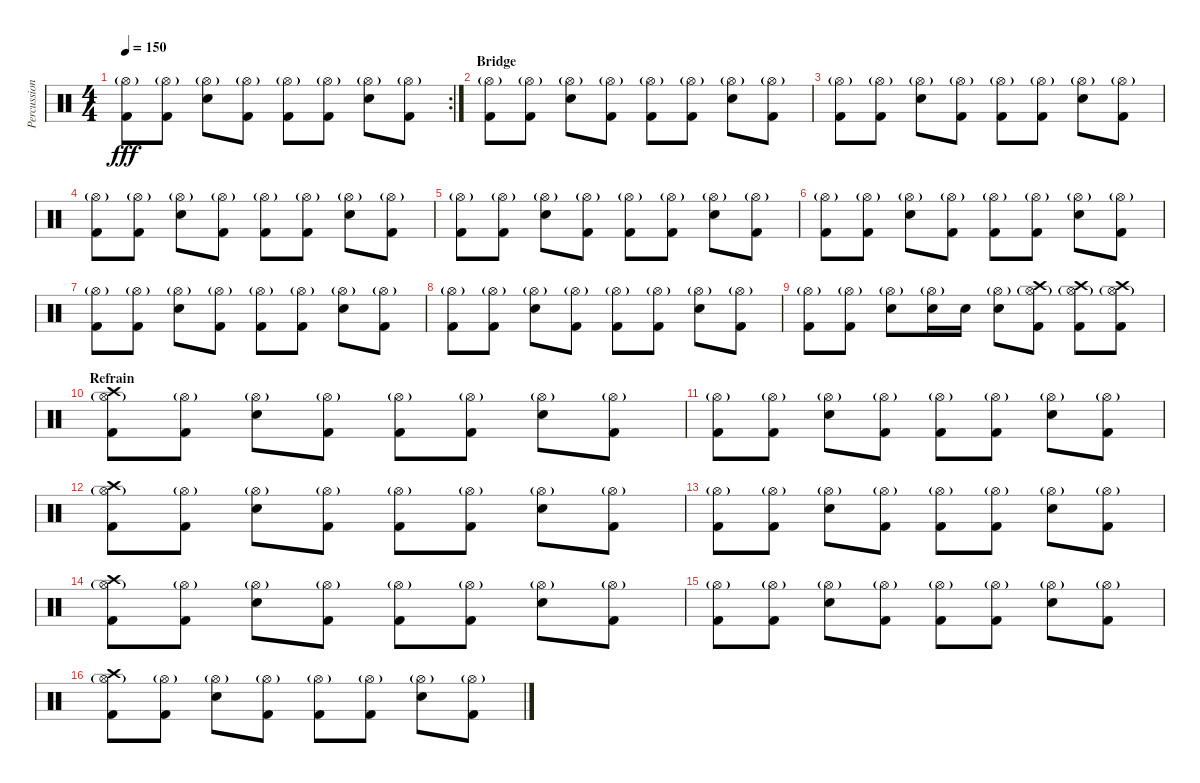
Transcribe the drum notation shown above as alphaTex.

\track ("Percussion" "Percussion") {instrument percussion}
\staff {score}
\articulation defaults
\rc 2
\ts (4 4)
\tempo 150
\clef neutral
\ks c
("Hi-Hat (open)"{g} "Kick (hit) 2").8{dy fff} ("Hi-Hat (open)"{g} "Kick (hit) 2").8 ("Hi-Hat (open)"{g} "Snare (hit) 2").8 ("Hi-Hat (open)"{g} "Kick (hit) 2").8 ("Hi-Hat (open)"{g} "Kick (hit) 2").8 ("Hi-Hat (open)"{g} "Kick (hit) 2").8 ("Hi-Hat (open)"{g} "Snare (hit) 2").8 ("Hi-Hat (open)"{g} "Kick (hit) 2").8 |
\section ("" "Bridge")
("Hi-Hat (open)"{g} "Kick (hit) 2").8 ("Hi-Hat (open)"{g} "Kick (hit) 2").8 ("Hi-Hat (open)"{g} "Snare (hit) 2").8 ("Hi-Hat (open)"{g} "Kick (hit) 2").8 ("Hi-Hat (open)"{g} "Kick (hit) 2").8 ("Hi-Hat (open)"{g} "Kick (hit) 2").8 ("Hi-Hat (open)"{g} "Snare (hit) 2").8 ("Hi-Hat (open)"{g} "Kick (hit) 2").8 |
("Hi-Hat (open)"{g} "Kick (hit) 2").8 ("Hi-Hat (open)"{g} "Kick (hit) 2").8 ("Hi-Hat (open)"{g} "Snare (hit) 2").8 ("Hi-Hat (open)"{g} "Kick (hit) 2").8 ("Hi-Hat (open)"{g} "Kick (hit) 2").8 ("Hi-Hat (open)"{g} "Kick (hit) 2").8 ("Hi-Hat (open)"{g} "Snare (hit) 2").8 ("Hi-Hat (open)"{g} "Kick (hit) 2").8 |
("Hi-Hat (open)"{g} "Kick (hit) 2").8 ("Hi-Hat (open)"{g} "Kick (hit) 2").8 ("Hi-Hat (open)"{g} "Snare (hit) 2").8 ("Hi-Hat (open)"{g} "Kick (hit) 2").8 ("Hi-Hat (open)"{g} "Kick (hit) 2").8 ("Hi-Hat (open)"{g} "Kick (hit) 2").8 ("Hi-Hat (open)"{g} "Snare (hit) 2").8 ("Hi-Hat (open)"{g} "Kick (hit) 2").8 |
("Hi-Hat (open)"{g} "Kick (hit) 2").8 ("Hi-Hat (open)"{g} "Kick (hit) 2").8 ("Hi-Hat (open)"{g} "Snare (hit) 2").8 ("Hi-Hat (open)"{g} "Kick (hit) 2").8 ("Hi-Hat (open)"{g} "Kick (hit) 2").8 ("Hi-Hat (open)"{g} "Kick (hit) 2").8 ("Hi-Hat (open)"{g} "Snare (hit) 2").8 ("Hi-Hat (open)"{g} "Kick (hit) 2").8 |
("Hi-Hat (open)"{g} "Kick (hit) 2").8 ("Hi-Hat (open)"{g} "Kick (hit) 2").8 ("Hi-Hat (open)"{g} "Snare (hit) 2").8 ("Hi-Hat (open)"{g} "Kick (hit) 2").8 ("Hi-Hat (open)"{g} "Kick (hit) 2").8 ("Hi-Hat (open)"{g} "Kick (hit) 2").8 ("Hi-Hat (open)"{g} "Snare (hit) 2").8 ("Hi-Hat (open)"{g} "Kick (hit) 2").8 |
("Hi-Hat (open)"{g} "Kick (hit) 2").8 ("Hi-Hat (open)"{g} "Kick (hit) 2").8 ("Hi-Hat (open)"{g} "Snare (hit) 2").8 ("Hi-Hat (open)"{g} "Kick (hit) 2").8 ("Hi-Hat (open)"{g} "Kick (hit) 2").8 ("Hi-Hat (open)"{g} "Kick (hit) 2").8 ("Hi-Hat (open)"{g} "Snare (hit) 2").8 ("Hi-Hat (open)"{g} "Kick (hit) 2").8 |
("Hi-Hat (open)"{g} "Kick (hit) 2").8 ("Hi-Hat (open)"{g} "Kick (hit) 2").8 ("Hi-Hat (open)"{g} "Snare (hit) 2").8 ("Hi-Hat (open)"{g} "Kick (hit) 2").8 ("Hi-Hat (open)"{g} "Kick (hit) 2").8 ("Hi-Hat (open)"{g} "Kick (hit) 2").8 ("Hi-Hat (open)"{g} "Snare (hit) 2").8 ("Hi-Hat (open)"{g} "Kick (hit) 2").8 |
("Hi-Hat (open)"{g} "Kick (hit) 2").8 ("Hi-Hat (open)"{g} "Kick (hit) 2").8 ("Hi-Hat (open)"{g} "Snare (hit) 2").8 ("Hi-Hat (open)"{g} "Snare (hit) 2").16 "Snare (hit) 2".16 ("Hi-Hat (open)"{g} "Snare (hit) 2").8 ("Crash high (hit)" "Hi-Hat (open)"{g} "Kick (hit) 2").8 ("Crash high (hit)" "Hi-Hat (open)"{g} "Kick (hit) 2").8 ("Crash high (hit)" "Hi-Hat (open)"{g} "Kick (hit) 2").8 |
\section ("" "Refrain")
("Crash high (hit)" "Hi-Hat (open)"{g} "Kick (hit) 2").8 ("Hi-Hat (open)"{g} "Kick (hit) 2").8 ("Hi-Hat (open)"{g} "Snare (hit) 2").8 ("Hi-Hat (open)"{g} "Kick (hit) 2").8 ("Hi-Hat (open)"{g} "Kick (hit) 2").8 ("Hi-Hat (open)"{g} "Kick (hit) 2").8 ("Hi-Hat (open)"{g} "Snare (hit) 2").8 ("Hi-Hat (open)"{g} "Kick (hit) 2").8 |
("Hi-Hat (open)"{g} "Kick (hit) 2").8 ("Hi-Hat (open)"{g} "Kick (hit) 2").8 ("Hi-Hat (open)"{g} "Snare (hit) 2").8 ("Hi-Hat (open)"{g} "Kick (hit) 2").8 ("Hi-Hat (open)"{g} "Kick (hit) 2").8 ("Hi-Hat (open)"{g} "Kick (hit) 2").8 ("Hi-Hat (open)"{g} "Snare (hit) 2").8 ("Hi-Hat (open)"{g} "Kick (hit) 2").8 |
("Crash high (hit)" "Hi-Hat (open)"{g} "Kick (hit) 2").8 ("Hi-Hat (open)"{g} "Kick (hit) 2").8 ("Hi-Hat (open)"{g} "Snare (hit) 2").8 ("Hi-Hat (open)"{g} "Kick (hit) 2").8 ("Hi-Hat (open)"{g} "Kick (hit) 2").8 ("Hi-Hat (open)"{g} "Kick (hit) 2").8 ("Hi-Hat (open)"{g} "Snare (hit) 2").8 ("Hi-Hat (open)"{g} "Kick (hit) 2").8 |
("Hi-Hat (open)"{g} "Kick (hit) 2").8 ("Hi-Hat (open)"{g} "Kick (hit) 2").8 ("Hi-Hat (open)"{g} "Snare (hit) 2").8 ("Hi-Hat (open)"{g} "Kick (hit) 2").8 ("Hi-Hat (open)"{g} "Kick (hit) 2").8 ("Hi-Hat (open)"{g} "Kick (hit) 2").8 ("Hi-Hat (open)"{g} "Snare (hit) 2").8 ("Hi-Hat (open)"{g} "Kick (hit) 2").8 |
("Crash high (hit)" "Hi-Hat (open)"{g} "Kick (hit) 2").8 ("Hi-Hat (open)"{g} "Kick (hit) 2").8 ("Hi-Hat (open)"{g} "Snare (hit) 2").8 ("Hi-Hat (open)"{g} "Kick (hit) 2").8 ("Hi-Hat (open)"{g} "Kick (hit) 2").8 ("Hi-Hat (open)"{g} "Kick (hit) 2").8 ("Hi-Hat (open)"{g} "Snare (hit) 2").8 ("Hi-Hat (open)"{g} "Kick (hit) 2").8 |
("Hi-Hat (open)"{g} "Kick (hit) 2").8 ("Hi-Hat (open)"{g} "Kick (hit) 2").8 ("Hi-Hat (open)"{g} "Snare (hit) 2").8 ("Hi-Hat (open)"{g} "Kick (hit) 2").8 ("Hi-Hat (open)"{g} "Kick (hit) 2").8 ("Hi-Hat (open)"{g} "Kick (hit) 2").8 ("Hi-Hat (open)"{g} "Snare (hit) 2").8 ("Hi-Hat (open)"{g} "Kick (hit) 2").8 |
("Crash high (hit)" "Hi-Hat (open)"{g} "Kick (hit) 2").8 ("Hi-Hat (open)"{g} "Kick (hit) 2").8 ("Hi-Hat (open)"{g} "Snare (hit) 2").8 ("Hi-Hat (open)"{g} "Kick (hit) 2").8 ("Hi-Hat (open)"{g} "Kick (hit) 2").8 ("Hi-Hat (open)"{g} "Kick (hit) 2").8 ("Hi-Hat (open)"{g} "Snare (hit) 2").8 ("Hi-Hat (open)"{g} "Kick (hit) 2").8
